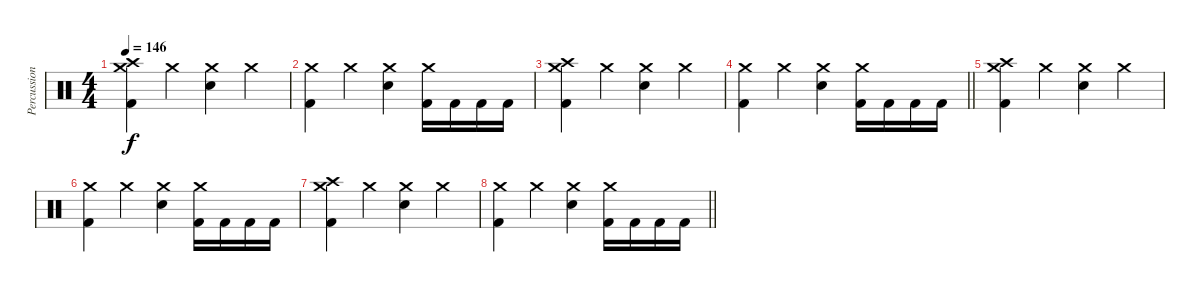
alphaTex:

\track ("Percussion" "Percussion") {instrument percussion}
\staff {score}
\articulation defaults
\ts (4 4)
\tempo 146
\clef neutral
\ks c
("Crash high (hit)" "Crash medium (hit)" "Kick (hit) 2").4{dy f} "Crash medium (hit)".4 ("Crash medium (hit)" "Snare (hit) 2").4 "Crash medium (hit)".4 |
("Crash medium (hit)" "Kick (hit) 2").4 "Crash medium (hit)".4 ("Crash medium (hit)" "Snare (hit) 2").4 ("Crash medium (hit)" "Kick (hit) 2").16 "Kick (hit) 2".16 "Kick (hit) 2".16 "Kick (hit) 2".16 |
("Crash high (hit)" "Crash medium (hit)" "Kick (hit) 2").4 "Crash medium (hit)".4 ("Crash medium (hit)" "Snare (hit) 2").4 "Crash medium (hit)".4 |
\barLineRight lightlight
("Crash medium (hit)" "Kick (hit) 2").4 "Crash medium (hit)".4 ("Crash medium (hit)" "Snare (hit) 2").4 ("Crash medium (hit)" "Kick (hit) 2").16 "Kick (hit) 2".16 "Kick (hit) 2".16 "Kick (hit) 2".16 |
("Crash high (hit)" "Crash medium (hit)" "Kick (hit) 2").4 "Crash medium (hit)".4 ("Crash medium (hit)" "Snare (hit) 2").4 "Crash medium (hit)".4 |
("Crash medium (hit)" "Kick (hit) 2").4 "Crash medium (hit)".4 ("Crash medium (hit)" "Snare (hit) 2").4 ("Crash medium (hit)" "Kick (hit) 2").16 "Kick (hit) 2".16 "Kick (hit) 2".16 "Kick (hit) 2".16 |
("Crash high (hit)" "Crash medium (hit)" "Kick (hit) 2").4 "Crash medium (hit)".4 ("Crash medium (hit)" "Snare (hit) 2").4 "Crash medium (hit)".4 |
\barLineRight lightlight
("Crash medium (hit)" "Kick (hit) 2").4 "Crash medium (hit)".4 ("Crash medium (hit)" "Snare (hit) 2").4 ("Crash medium (hit)" "Kick (hit) 2").16 "Kick (hit) 2".16 "Kick (hit) 2".16 "Kick (hit) 2".16
